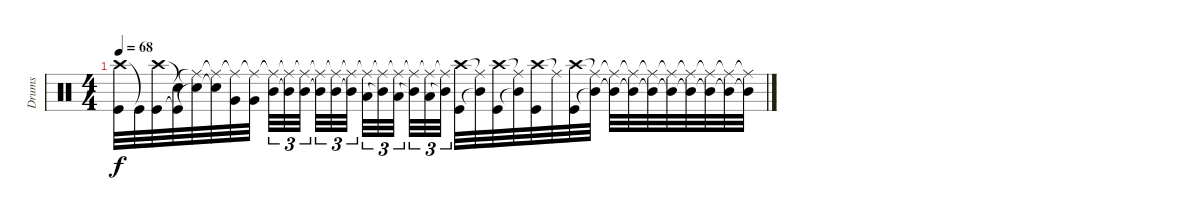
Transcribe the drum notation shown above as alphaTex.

\track ("Drums" "Drums") {instrument percussion}
\staff {score}
\articulation defaults
\ts (4 4)
\tempo 68
\clef neutral
\ks c
("Crash high (hit)" "Kick (hit)").32{dy f} "Kick (hit)"{t}.32 ("Crash high (hit)" "Kick (hit)").32 ("Snare (hit)"{t} "Kick (hit)"{t}).32 ("Ride (middle)"{t} "Electric Snare (hit)"{t}).32 ("Ride (middle)"{t} "Snare (hit)"{t}).32 ("Ride (middle)"{t} "Very Low Tom (hit)").32 ("Ride (middle)"{t} "Very Low Tom (hit)").32 ("Ride (middle)"{t} "Mid Tom (hit)").32{tu (3 2)} ("Ride (middle)"{t} "Mid Tom (hit)"{t}).32{tu (3 2)} ("Ride (middle)"{t} "Mid Tom (hit)").32{tu (3 2)} ("Ride (middle)"{t} "Mid Tom (hit)"{t}).32{tu (3 2)} ("Ride (middle)"{t} "Mid Tom (hit)").32{tu (3 2)} ("Ride (middle)"{t} "Mid Tom (hit)"{t}).32{tu (3 2)} ("Ride (middle)"{t} "Low Tom (hit)").32{tu (3 2)} ("Ride (middle)"{t} "Mid Tom (hit)"{t}).32{tu (3 2)} ("Ride (middle)"{t} "Low Tom (hit)").32{tu (3 2)} ("Ride (middle)"{t} "Mid Tom (hit)"{t}).32{tu (3 2)} ("Ride (middle)"{t} "Low Tom (hit)").32{tu (3 2)} ("Ride (middle)"{t} "Mid Tom (hit)"{t}).32{tu (3 2)} ("Crash high (hit)" "Kick (hit)").32 ("Ride (middle)"{t} "Mid Tom (hit)"{t}).32 ("Crash high (hit)" "Kick (hit)").32 ("Ride (middle)"{t} "Mid Tom (hit)"{t}).32 ("Crash high (hit)" "Kick (hit)").32 "Ride (middle)"{t}.32 ("Crash high (hit)" "Kick (hit)").32 ("Ride (middle)"{t} "Mid Tom (hit)"{t}).32 ("Ride (middle)"{t} "Mid Tom (hit)"{t}).32 ("Ride (middle)"{t} "Mid Tom (hit)"{t}).32 ("Ride (middle)"{t} "Mid Tom (hit)"{t}).32 ("Ride (middle)"{t} "Mid Tom (hit)"{t}).32 ("Ride (middle)"{t} "Mid Tom (hit)"{t}).32 ("Ride (middle)"{t} "Mid Tom (hit)"{t}).32 ("Ride (middle)"{t} "Mid Tom (hit)"{t}).32 ("Ride (middle)"{t} "Mid Tom (hit)"{t}).32
